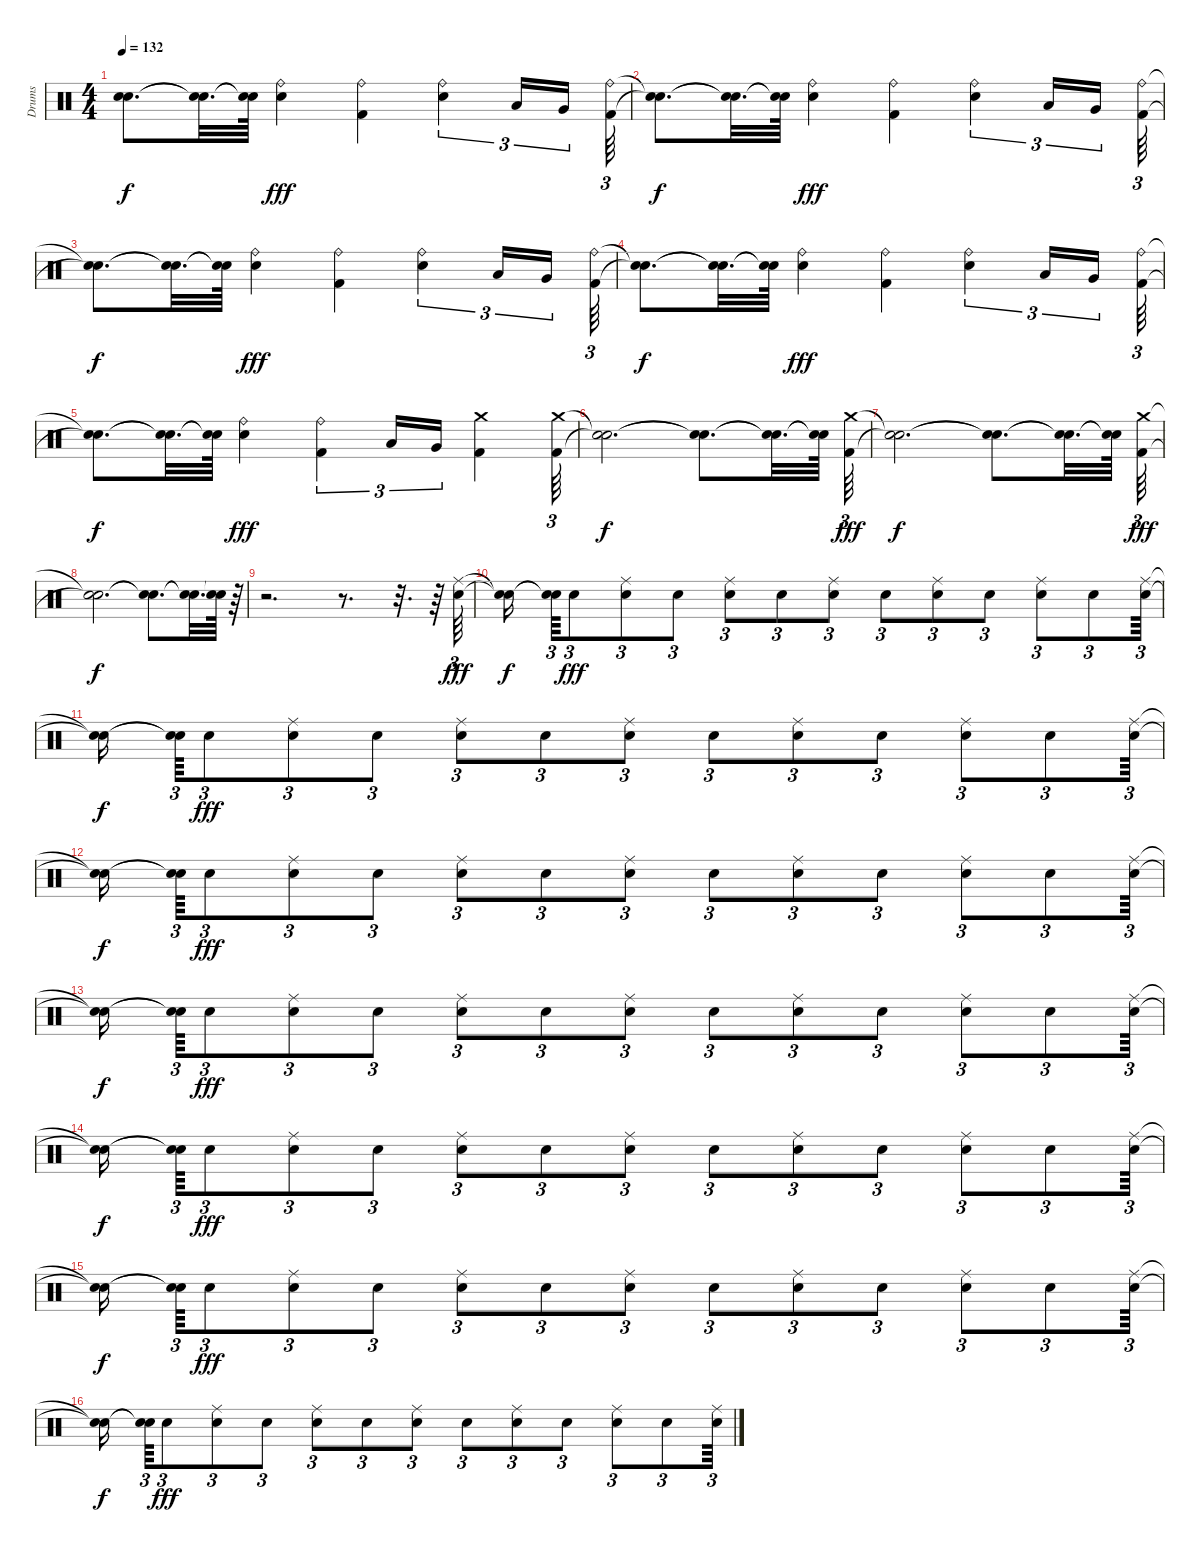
\track ("Drums" "Drums") {instrument percussion}
\staff {score}
\articulation defaults
\ts (4 4)
\tempo 132
\clef neutral
\ks c
("Snare (hit)"{t} "Snare (hit)"{t}).8{d dy f} ("Snare (hit)"{t} "Snare (hit)"{t}).32{d} ("Snare (hit)"{t} "Snare (hit)"{t}).64 ("Ride (bell)" "Electric Snare (hit)").4{dy fff} ("Kick (hit) 2" "Ride (bell)").4 ("Electric Snare (hit)" "Ride (bell)").4{tu (3 2)} "Low Tom (hit)".16{tu (3 2)} "Very Low Tom (hit)".16{tu (3 2)} ("Ride (bell)" "Kick (hit) 2").64{tu (3 2)} |
("Snare (hit)"{t} "Snare (hit)"{t}).8{d dy f} ("Snare (hit)"{t} "Snare (hit)"{t}).32{d} ("Snare (hit)"{t} "Snare (hit)"{t}).64 ("Ride (bell)" "Electric Snare (hit)").4{dy fff} ("Ride (bell)" "Kick (hit) 2").4 ("Ride (bell)" "Electric Snare (hit)").4{tu (3 2)} "Low Tom (hit)".16{tu (3 2)} "Very Low Tom (hit)".16{tu (3 2)} ("Ride (bell)" "Kick (hit) 2").64{tu (3 2)} |
("Snare (hit)"{t} "Snare (hit)"{t}).8{d dy f} ("Snare (hit)"{t} "Snare (hit)"{t}).32{d} ("Snare (hit)"{t} "Snare (hit)"{t}).64 ("Electric Snare (hit)" "Ride (bell)").4{dy fff} ("Kick (hit) 2" "Ride (bell)").4 ("Ride (bell)" "Electric Snare (hit)").4{tu (3 2)} "Low Tom (hit)".16{tu (3 2)} "Very Low Tom (hit)".16{tu (3 2)} ("Kick (hit) 2" "Ride (bell)").64{tu (3 2)} |
("Snare (hit)"{t} "Snare (hit)"{t}).8{d dy f} ("Snare (hit)"{t} "Snare (hit)"{t}).32{d} ("Snare (hit)"{t} "Snare (hit)"{t}).64 ("Ride (bell)" "Electric Snare (hit)").4{dy fff} ("Kick (hit) 2" "Ride (bell)").4 ("Electric Snare (hit)" "Ride (bell)").4{tu (3 2)} "Low Tom (hit)".16{tu (3 2)} "Very Low Tom (hit)".16{tu (3 2)} ("Ride (bell)" "Kick (hit) 2").64{tu (3 2)} |
("Snare (hit)"{t} "Snare (hit)"{t}).8{d dy f} ("Snare (hit)"{t} "Snare (hit)"{t}).32{d} ("Snare (hit)"{t} "Snare (hit)"{t}).64 ("Electric Snare (hit)" "Ride (bell)").4{dy fff} ("Ride (bell)" "Kick (hit) 2").4{tu (3 2)} "Low Tom (hit)".16{tu (3 2)} "Very Low Tom (hit)".16{tu (3 2)} ("Kick (hit) 2" "Crash medium (hit)").4 ("Kick (hit) 2" "Crash medium (hit)").64{tu (3 2)} |
("Snare (hit)"{t} "Snare (hit)"{t}).2{d dy f} ("Snare (hit)"{t} "Snare (hit)"{t}).8{d} ("Snare (hit)"{t} "Snare (hit)"{t}).32{d} ("Snare (hit)"{t} "Snare (hit)"{t}).64 ("Crash medium (hit)" "Kick (hit) 2").64{tu (3 2) dy fff} |
("Snare (hit)"{t} "Snare (hit)"{t}).2{d dy f} ("Snare (hit)"{t} "Snare (hit)"{t}).8{d} ("Snare (hit)"{t} "Snare (hit)"{t}).32{d} ("Snare (hit)"{t} "Snare (hit)"{t}).64 ("Crash medium (hit)" "Kick (hit) 2").64{tu (3 2) dy fff} |
("Snare (hit)"{t} "Snare (hit)"{t}).2{d dy f} ("Snare (hit)"{t} "Snare (hit)"{t}).8{d} ("Snare (hit)"{t} "Snare (hit)"{t}).32{d} ("Snare (hit)"{t} "Snare (hit)"{t}).64 r.64{tu (3 2)} |
r.2{d} r.8{d} r.32{d} r.64 ("Ride (middle)" "Electric Snare (hit)").64{tu (3 2) dy fff} |
("Snare (hit)"{t} "Snare (hit)"{t}).16{dy f} ("Snare (hit)"{t} "Snare (hit)"{t}).64{tu (3 2)} "Electric Snare (hit)".8{tu (3 2) dy fff} ("Electric Snare (hit)" "Ride (middle)").8{tu (3 2)} "Electric Snare (hit)".8{tu (3 2)} ("Electric Snare (hit)" "Ride (middle)").8{tu (3 2)} "Electric Snare (hit)".8{tu (3 2)} ("Ride (middle)" "Electric Snare (hit)").8{tu (3 2)} "Electric Snare (hit)".8{tu (3 2)} ("Electric Snare (hit)" "Ride (middle)").8{tu (3 2)} "Electric Snare (hit)".8{tu (3 2)} ("Ride (middle)" "Electric Snare (hit)").8{tu (3 2)} "Electric Snare (hit)".8{tu (3 2)} ("Ride (middle)" "Electric Snare (hit)").64{tu (3 2)} |
("Snare (hit)"{t} "Snare (hit)"{t}).16{dy f} ("Snare (hit)"{t} "Snare (hit)"{t}).64{tu (3 2)} "Electric Snare (hit)".8{tu (3 2) dy fff} ("Electric Snare (hit)" "Ride (middle)").8{tu (3 2)} "Electric Snare (hit)".8{tu (3 2)} ("Electric Snare (hit)" "Ride (middle)").8{tu (3 2)} "Electric Snare (hit)".8{tu (3 2)} ("Electric Snare (hit)" "Ride (middle)").8{tu (3 2)} "Electric Snare (hit)".8{tu (3 2)} ("Ride (middle)" "Electric Snare (hit)").8{tu (3 2)} "Electric Snare (hit)".8{tu (3 2)} ("Ride (middle)" "Electric Snare (hit)").8{tu (3 2)} "Electric Snare (hit)".8{tu (3 2)} ("Ride (middle)" "Electric Snare (hit)").64{tu (3 2)} |
("Snare (hit)"{t} "Snare (hit)"{t}).16{dy f} ("Snare (hit)"{t} "Snare (hit)"{t}).64{tu (3 2)} "Snare (hit) 2".8{tu (3 2) dy fff} ("Electric Snare (hit)" "Ride (middle)").8{tu (3 2)} "Electric Snare (hit)".8{tu (3 2)} ("Ride (middle)" "Electric Snare (hit)").8{tu (3 2)} "Electric Snare (hit)".8{tu (3 2)} ("Electric Snare (hit)" "Ride (middle)").8{tu (3 2)} "Snare (hit) 2".8{tu (3 2)} ("Ride (middle)" "Electric Snare (hit)").8{tu (3 2)} "Electric Snare (hit)".8{tu (3 2)} ("Ride (middle)" "Electric Snare (hit)").8{tu (3 2)} "Electric Snare (hit)".8{tu (3 2)} ("Electric Snare (hit)" "Ride (middle)").64{tu (3 2)} |
("Snare (hit)"{t} "Snare (hit)"{t}).16{dy f} ("Snare (hit)"{t} "Snare (hit)"{t}).64{tu (3 2)} "Electric Snare (hit)".8{tu (3 2) dy fff} ("Electric Snare (hit)" "Ride (middle)").8{tu (3 2)} "Electric Snare (hit)".8{tu (3 2)} ("Ride (middle)" "Electric Snare (hit)").8{tu (3 2)} "Electric Snare (hit)".8{tu (3 2)} ("Ride (middle)" "Electric Snare (hit)").8{tu (3 2)} "Electric Snare (hit)".8{tu (3 2)} ("Electric Snare (hit)" "Ride (middle)").8{tu (3 2)} "Electric Snare (hit)".8{tu (3 2)} ("Electric Snare (hit)" "Ride (middle)").8{tu (3 2)} "Electric Snare (hit)".8{tu (3 2)} ("Ride (middle)" "Electric Snare (hit)").64{tu (3 2)} |
("Snare (hit)"{t} "Snare (hit)"{t}).16{dy f} ("Snare (hit)"{t} "Snare (hit)"{t}).64{tu (3 2)} "Snare (hit) 2".8{tu (3 2) dy fff} ("Electric Snare (hit)" "Ride (middle)").8{tu (3 2)} "Electric Snare (hit)".8{tu (3 2)} ("Ride (middle)" "Electric Snare (hit)").8{tu (3 2)} "Electric Snare (hit)".8{tu (3 2)} ("Electric Snare (hit)" "Ride (middle)").8{tu (3 2)} "Snare (hit) 2".8{tu (3 2)} ("Ride (middle)" "Electric Snare (hit)").8{tu (3 2)} "Electric Snare (hit)".8{tu (3 2)} ("Ride (middle)" "Electric Snare (hit)").8{tu (3 2)} "Electric Snare (hit)".8{tu (3 2)} ("Ride (middle)" "Electric Snare (hit)").64{tu (3 2)} |
("Snare (hit)"{t} "Snare (hit)"{t}).16{dy f} ("Snare (hit)"{t} "Snare (hit)"{t}).64{tu (3 2)} "Electric Snare (hit)".8{tu (3 2) dy fff} ("Ride (middle)" "Electric Snare (hit)").8{tu (3 2)} "Electric Snare (hit)".8{tu (3 2)} ("Electric Snare (hit)" "Ride (middle)").8{tu (3 2)} "Electric Snare (hit)".8{tu (3 2)} ("Ride (middle)" "Electric Snare (hit)").8{tu (3 2)} "Electric Snare (hit)".8{tu (3 2)} ("Electric Snare (hit)" "Ride (middle)").8{tu (3 2)} "Electric Snare (hit)".8{tu (3 2)} ("Electric Snare (hit)" "Ride (middle)").8{tu (3 2)} "Electric Snare (hit)".8{tu (3 2)} ("Electric Snare (hit)" "Ride (middle)").64{tu (3 2)} |
("Snare (hit)"{t} "Snare (hit)"{t}).16{dy f} ("Snare (hit)"{t} "Snare (hit)"{t}).64{tu (3 2)} "Electric Snare (hit)".8{tu (3 2) dy fff} ("Ride (middle)" "Electric Snare (hit)").8{tu (3 2)} "Electric Snare (hit)".8{tu (3 2)} ("Electric Snare (hit)" "Ride (middle)").8{tu (3 2)} "Electric Snare (hit)".8{tu (3 2)} ("Ride (middle)" "Electric Snare (hit)").8{tu (3 2)} "Electric Snare (hit)".8{tu (3 2)} ("Ride (middle)" "Electric Snare (hit)").8{tu (3 2)} "Electric Snare (hit)".8{tu (3 2)} ("Electric Snare (hit)" "Ride (middle)").8{tu (3 2)} "Electric Snare (hit)".8{tu (3 2)} ("Electric Snare (hit)" "Ride (middle)").64{tu (3 2)}
